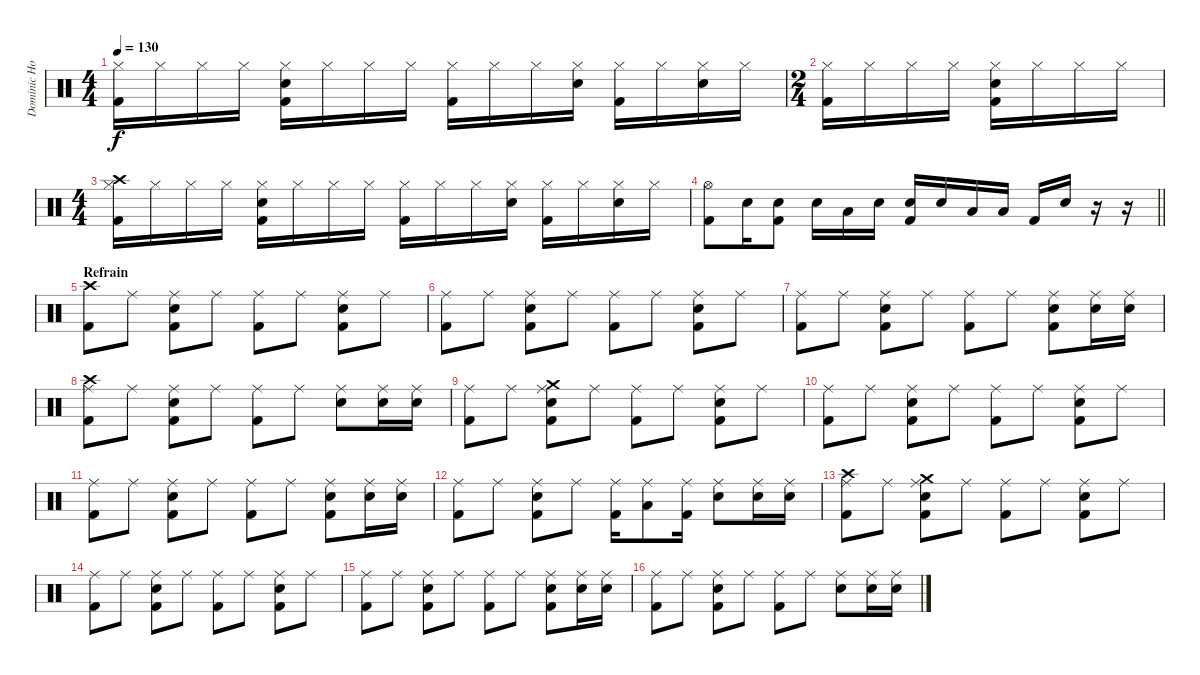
\track ("Dominic Howard" "Dominic Ho") {instrument percussion}
\staff {score}
\articulation defaults
\ts (4 4)
\tempo 130
\clef neutral
\ks c
("Hi-Hat (closed)" "Kick (hit) 2").16{dy f} "Hi-Hat (closed)".16 "Hi-Hat (closed)".16 "Hi-Hat (closed)".16 ("Hi-Hat (closed)" "Kick (hit) 2" "Electric Snare (hit)").16 "Hi-Hat (closed)".16 "Hi-Hat (closed)".16 "Hi-Hat (closed)".16 ("Hi-Hat (closed)" "Kick (hit) 2").16 "Hi-Hat (closed)".16 "Hi-Hat (closed)".16 ("Hi-Hat (closed)" "Electric Snare (hit)").16 ("Hi-Hat (closed)" "Kick (hit) 2").16 "Hi-Hat (closed)".16 ("Hi-Hat (closed)" "Electric Snare (hit)").16 "Hi-Hat (closed)".16 |
\ts (2 4)
("Hi-Hat (closed)" "Kick (hit) 2").16 "Hi-Hat (closed)".16 "Hi-Hat (closed)".16 "Hi-Hat (closed)".16 ("Hi-Hat (closed)" "Kick (hit) 2" "Electric Snare (hit)").16 "Hi-Hat (closed)".16 "Hi-Hat (closed)".16 "Hi-Hat (closed)".16 |
\ts (4 4)
("Crash high (hit)" "Hi-Hat (closed)" "Kick (hit) 2").16 "Hi-Hat (closed)".16 "Hi-Hat (closed)".16 "Hi-Hat (closed)".16 ("Hi-Hat (closed)" "Electric Snare (hit)" "Kick (hit) 2").16 "Hi-Hat (closed)".16 "Hi-Hat (closed)".16 "Hi-Hat (closed)".16 ("Hi-Hat (closed)" "Kick (hit) 2").16 "Hi-Hat (closed)".16 "Hi-Hat (closed)".16 ("Hi-Hat (closed)" "Electric Snare (hit)").16 ("Hi-Hat (closed)" "Kick (hit) 2").16 "Hi-Hat (closed)".16 ("Electric Snare (hit)" "Hi-Hat (closed)").16 "Hi-Hat (closed)".16 |
\barLineRight lightlight
("Hi-Hat (open)" "Kick (hit) 2").8 "Electric Snare (hit)".16 ("Kick (hit) 2" "Electric Snare (hit)").8 "Electric Snare (hit)".16 "Low Tom (hit)".16 "Electric Snare (hit)".16 ("Kick (hit) 2" "Electric Snare (hit)").16 "Electric Snare (hit)".16 "Low Tom (hit)".16 "Low Tom (hit)".16 "Kick (hit) 2".16 "Electric Snare (hit)".16 r.16 r.16 |
\section ("" "Refrain")
("Kick (hit) 2" "Crash high (hit)").8 "Ride (middle)".8 ("Ride (middle)" "Kick (hit) 2" "Electric Snare (hit)").8 "Ride (middle)".8 ("Ride (middle)" "Kick (hit) 2").8 "Ride (middle)".8 ("Ride (middle)" "Kick (hit) 2" "Electric Snare (hit)").8 "Ride (middle)".8 |
("Ride (middle)" "Kick (hit) 2").8 "Ride (middle)".8 ("Ride (middle)" "Kick (hit) 2" "Electric Snare (hit)").8 "Ride (middle)".8 ("Ride (middle)" "Kick (hit) 2").8 "Ride (middle)".8 ("Ride (middle)" "Kick (hit) 2" "Electric Snare (hit)").8 "Ride (middle)".8 |
("Ride (middle)" "Kick (hit) 2").8 "Ride (middle)".8 ("Ride (middle)" "Kick (hit) 2" "Electric Snare (hit)").8 "Ride (middle)".8 ("Ride (middle)" "Kick (hit) 2").8 "Ride (middle)".8 ("Ride (middle)" "Kick (hit) 2" "Electric Snare (hit)").8 ("Ride (middle)" "Electric Snare (hit)").16 ("Ride (middle)" "Electric Snare (hit)").16 |
("Ride (middle)" "Kick (hit) 2" "Crash high (hit)").8 "Ride (middle)".8 ("Ride (middle)" "Kick (hit) 2" "Electric Snare (hit)").8 "Ride (middle)".8 ("Ride (middle)" "Kick (hit) 2").8 "Ride (middle)".8 ("Ride (middle)" "Electric Snare (hit)").8 ("Ride (middle)" "Electric Snare (hit)").16 ("Ride (middle)" "Electric Snare (hit)").16 |
("Ride (middle)" "Kick (hit) 2").8 "Ride (middle)".8 ("Crash medium (hit)" "Ride (middle)" "Kick (hit) 2" "Electric Snare (hit)").8 "Ride (middle)".8 ("Ride (middle)" "Kick (hit) 2").8 "Ride (middle)".8 ("Ride (middle)" "Kick (hit) 2" "Electric Snare (hit)").8 "Ride (middle)".8 |
("Ride (middle)" "Kick (hit) 2").8 "Ride (middle)".8 ("Ride (middle)" "Kick (hit) 2" "Electric Snare (hit)").8 "Ride (middle)".8 ("Ride (middle)" "Kick (hit) 2").8 "Ride (middle)".8 ("Ride (middle)" "Kick (hit) 2" "Electric Snare (hit)").8 "Ride (middle)".8 |
("Ride (middle)" "Kick (hit) 2").8 "Ride (middle)".8 ("Ride (middle)" "Kick (hit) 2" "Electric Snare (hit)").8 "Ride (middle)".8 ("Ride (middle)" "Kick (hit) 2").8 "Ride (middle)".8 ("Ride (middle)" "Kick (hit) 2" "Electric Snare (hit)").8 ("Ride (middle)" "Electric Snare (hit)").16 ("Ride (middle)" "Electric Snare (hit)").16 |
("Ride (middle)" "Kick (hit) 2").8 "Ride (middle)".8 ("Ride (middle)" "Kick (hit) 2" "Electric Snare (hit)").8 "Ride (middle)".8 ("Ride (middle)" "Kick (hit) 2").16 ("Ride (middle)" "Low Tom (hit)").8 ("Ride (middle)" "Kick (hit) 2").16 ("Ride (middle)" "Electric Snare (hit)").8 ("Ride (middle)" "Electric Snare (hit)").16 ("Ride (middle)" "Electric Snare (hit)").16 |
("Crash high (hit)" "Ride (middle)" "Kick (hit) 2").8 "Ride (middle)".8 ("Crash medium (hit)" "Ride (middle)" "Kick (hit) 2" "Electric Snare (hit)").8 "Ride (middle)".8 ("Ride (middle)" "Kick (hit) 2").8 "Ride (middle)".8 ("Ride (middle)" "Kick (hit) 2" "Electric Snare (hit)").8 "Ride (middle)".8 |
("Ride (middle)" "Kick (hit) 2").8 "Ride (middle)".8 ("Ride (middle)" "Kick (hit) 2" "Electric Snare (hit)").8 "Ride (middle)".8 ("Ride (middle)" "Kick (hit) 2").8 "Ride (middle)".8 ("Ride (middle)" "Kick (hit) 2" "Electric Snare (hit)").8 "Ride (middle)".8 |
("Ride (middle)" "Kick (hit) 2").8 "Ride (middle)".8 ("Ride (middle)" "Kick (hit) 2" "Electric Snare (hit)").8 "Ride (middle)".8 ("Ride (middle)" "Kick (hit) 2").8 "Ride (middle)".8 ("Ride (middle)" "Kick (hit) 2" "Electric Snare (hit)").8 ("Ride (middle)" "Electric Snare (hit)").16 ("Ride (middle)" "Electric Snare (hit)").16 |
("Ride (middle)" "Kick (hit) 2").8 "Ride (middle)".8 ("Ride (middle)" "Kick (hit) 2" "Electric Snare (hit)").8 "Ride (middle)".8 ("Ride (middle)" "Kick (hit) 2").8 "Ride (middle)".8 ("Ride (middle)" "Electric Snare (hit)").8 ("Ride (middle)" "Electric Snare (hit)").16 ("Ride (middle)" "Electric Snare (hit)").16
